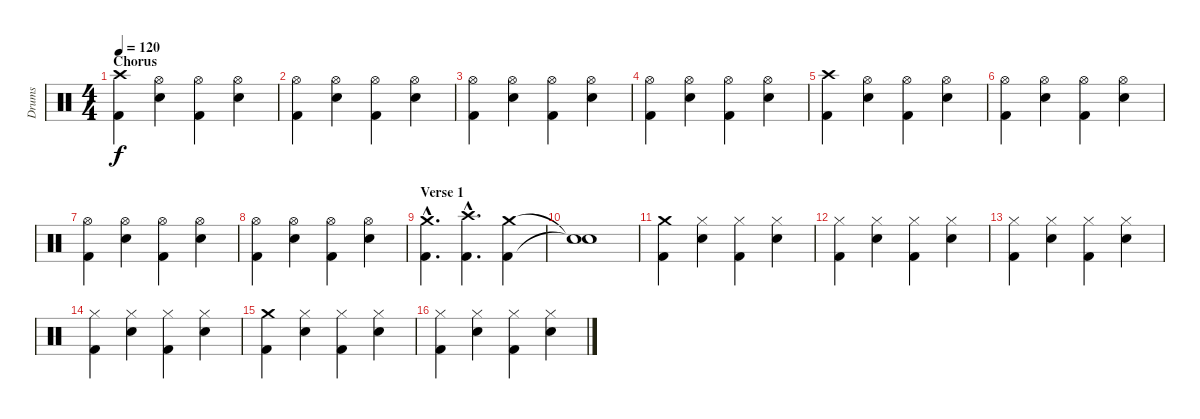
\track ("Drums" "Drums") {instrument percussion}
\staff {score}
\articulation defaults
\ts (4 4)
\section ("" "Chorus")
\tempo 120
\clef neutral
\ks c
("Crash high (hit)" "Kick (hit) 2").4{dy f} ("Hi-Hat (open)" "Electric Snare (hit)").4 ("Hi-Hat (open)" "Kick (hit) 2").4 ("Hi-Hat (open)" "Electric Snare (hit)").4 |
("Hi-Hat (open)" "Kick (hit) 2").4 ("Hi-Hat (open)" "Electric Snare (hit)").4 ("Hi-Hat (open)" "Kick (hit) 2").4 ("Hi-Hat (open)" "Electric Snare (hit)").4 |
("Hi-Hat (open)" "Kick (hit) 2").4 ("Hi-Hat (open)" "Electric Snare (hit)").4 ("Hi-Hat (open)" "Kick (hit) 2").4 ("Hi-Hat (open)" "Electric Snare (hit)").4 |
("Hi-Hat (open)" "Kick (hit) 2").4 ("Hi-Hat (open)" "Electric Snare (hit)").4 ("Hi-Hat (open)" "Kick (hit) 2").4 ("Hi-Hat (open)" "Electric Snare (hit)").4 |
("Crash high (hit)" "Kick (hit) 2").4 ("Hi-Hat (open)" "Electric Snare (hit)").4 ("Hi-Hat (open)" "Kick (hit) 2").4 ("Hi-Hat (open)" "Electric Snare (hit)").4 |
("Hi-Hat (open)" "Kick (hit) 2").4 ("Hi-Hat (open)" "Electric Snare (hit)").4 ("Hi-Hat (open)" "Kick (hit) 2").4 ("Hi-Hat (open)" "Electric Snare (hit)").4 |
("Hi-Hat (open)" "Kick (hit) 2").4 ("Hi-Hat (open)" "Electric Snare (hit)").4 ("Hi-Hat (open)" "Kick (hit) 2").4 ("Hi-Hat (open)" "Electric Snare (hit)").4 |
("Hi-Hat (open)" "Kick (hit) 2").4 ("Hi-Hat (open)" "Electric Snare (hit)").4 ("Hi-Hat (open)" "Kick (hit) 2").4 ("Hi-Hat (open)" "Electric Snare (hit)").4 |
\section ("" "Verse 1")
("Crash medium (hit)"{hac} "Kick (hit) 2"{hac}).4{d} ("Crash high (hit)"{hac} "Kick (hit) 2"{hac}).4{d} ("Crash medium (hit)" "Kick (hit) 2").4 |
("Snare (hit)"{t} "Snare (hit)"{t}).1 |
("Crash medium (hit)" "Kick (hit) 2").4 ("Hi-Hat (closed)" "Electric Snare (hit)").4 ("Hi-Hat (closed)" "Kick (hit) 2").4 ("Hi-Hat (closed)" "Electric Snare (hit)").4 |
("Hi-Hat (closed)" "Kick (hit) 2").4 ("Hi-Hat (closed)" "Electric Snare (hit)").4 ("Hi-Hat (closed)" "Kick (hit) 2").4 ("Hi-Hat (closed)" "Electric Snare (hit)").4 |
("Hi-Hat (closed)" "Kick (hit) 2").4 ("Hi-Hat (closed)" "Electric Snare (hit)").4 ("Hi-Hat (closed)" "Kick (hit) 2").4 ("Hi-Hat (closed)" "Electric Snare (hit)").4 |
("Hi-Hat (closed)" "Kick (hit) 2").4 ("Hi-Hat (closed)" "Electric Snare (hit)").4 ("Hi-Hat (closed)" "Kick (hit) 2").4 ("Hi-Hat (closed)" "Electric Snare (hit)").4 |
("Crash medium (hit)" "Kick (hit) 2").4 ("Hi-Hat (closed)" "Electric Snare (hit)").4 ("Hi-Hat (closed)" "Kick (hit) 2").4 ("Hi-Hat (closed)" "Electric Snare (hit)").4 |
("Hi-Hat (closed)" "Kick (hit) 2").4 ("Hi-Hat (closed)" "Electric Snare (hit)").4 ("Hi-Hat (closed)" "Kick (hit) 2").4 ("Hi-Hat (closed)" "Electric Snare (hit)").4
